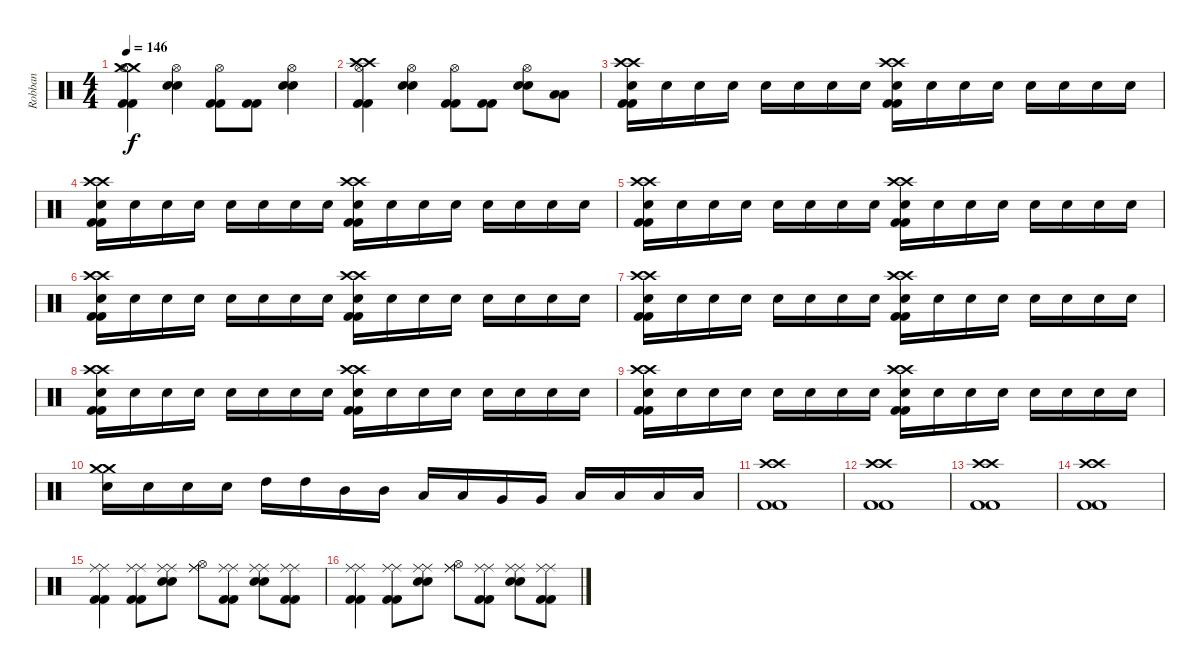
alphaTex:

\track ("Robban" "Robban") {instrument percussion}
\staff {score}
\articulation defaults
\ts (4 4)
\tempo 146
\clef neutral
\ks c
("Crash medium (hit)" "Crash medium (hit)" "Hi-Hat (open)" "Kick (hit) 2" "Kick (hit) 2").4{dy f} ("Hi-Hat (open)" "Electric Snare (hit)" "Electric Snare (hit)").4 ("Hi-Hat (open)" "Kick (hit) 2" "Kick (hit) 2").8 ("Kick (hit) 2" "Kick (hit) 2").8 ("Hi-Hat (open)" "Electric Snare (hit)" "Electric Snare (hit)").4 |
("Crash high (hit)" "Crash high (hit)" "Hi-Hat (open)" "Kick (hit) 2" "Kick (hit) 2").4 ("Hi-Hat (open)" "Electric Snare (hit)" "Electric Snare (hit)").4 ("Hi-Hat (open)" "Kick (hit) 2" "Kick (hit) 2").8 ("Kick (hit) 2" "Kick (hit) 2").8 ("Hi-Hat (open)" "Electric Snare (hit)" "Electric Snare (hit)").8 ("Low Floor Tom (hit)" "Low Floor Tom (hit)").8 |
("Crash high (hit)" "Crash high (hit)" "Electric Snare (hit)" "Kick (hit) 2" "Kick (hit) 2").16 "Electric Snare (hit)".16 "Electric Snare (hit)".16 "Electric Snare (hit)".16 "Electric Snare (hit)".16 "Electric Snare (hit)".16 "Electric Snare (hit)".16 "Electric Snare (hit)".16 ("Crash high (hit)" "Crash high (hit)" "Electric Snare (hit)" "Kick (hit) 2" "Kick (hit) 2").16 "Electric Snare (hit)".16 "Electric Snare (hit)".16 "Electric Snare (hit)".16 "Electric Snare (hit)".16 "Electric Snare (hit)".16 "Electric Snare (hit)".16 "Electric Snare (hit)".16 |
("Crash high (hit)" "Crash high (hit)" "Electric Snare (hit)" "Kick (hit) 2" "Kick (hit) 2").16 "Electric Snare (hit)".16 "Electric Snare (hit)".16 "Electric Snare (hit)".16 "Electric Snare (hit)".16 "Electric Snare (hit)".16 "Electric Snare (hit)".16 "Electric Snare (hit)".16 ("Crash high (hit)" "Crash high (hit)" "Electric Snare (hit)" "Kick (hit) 2" "Kick (hit) 2").16 "Electric Snare (hit)".16 "Electric Snare (hit)".16 "Electric Snare (hit)".16 "Electric Snare (hit)".16 "Electric Snare (hit)".16 "Electric Snare (hit)".16 "Electric Snare (hit)".16 |
("Crash high (hit)" "Crash high (hit)" "Electric Snare (hit)" "Kick (hit) 2" "Kick (hit) 2").16 "Electric Snare (hit)".16 "Electric Snare (hit)".16 "Electric Snare (hit)".16 "Electric Snare (hit)".16 "Electric Snare (hit)".16 "Electric Snare (hit)".16 "Electric Snare (hit)".16 ("Crash high (hit)" "Crash high (hit)" "Electric Snare (hit)" "Kick (hit) 2" "Kick (hit) 2").16 "Electric Snare (hit)".16 "Electric Snare (hit)".16 "Electric Snare (hit)".16 "Electric Snare (hit)".16 "Electric Snare (hit)".16 "Electric Snare (hit)".16 "Electric Snare (hit)".16 |
("Crash high (hit)" "Crash high (hit)" "Electric Snare (hit)" "Kick (hit) 2" "Kick (hit) 2").16 "Electric Snare (hit)".16 "Electric Snare (hit)".16 "Electric Snare (hit)".16 "Electric Snare (hit)".16 "Electric Snare (hit)".16 "Electric Snare (hit)".16 "Electric Snare (hit)".16 ("Crash high (hit)" "Crash high (hit)" "Electric Snare (hit)" "Kick (hit) 2" "Kick (hit) 2").16 "Electric Snare (hit)".16 "Electric Snare (hit)".16 "Electric Snare (hit)".16 "Electric Snare (hit)".16 "Electric Snare (hit)".16 "Electric Snare (hit)".16 "Electric Snare (hit)".16 |
("Crash high (hit)" "Crash high (hit)" "Electric Snare (hit)" "Kick (hit) 2" "Kick (hit) 2").16 "Electric Snare (hit)".16 "Electric Snare (hit)".16 "Electric Snare (hit)".16 "Electric Snare (hit)".16 "Electric Snare (hit)".16 "Electric Snare (hit)".16 "Electric Snare (hit)".16 ("Crash high (hit)" "Crash high (hit)" "Electric Snare (hit)" "Kick (hit) 2" "Kick (hit) 2").16 "Electric Snare (hit)".16 "Electric Snare (hit)".16 "Electric Snare (hit)".16 "Electric Snare (hit)".16 "Electric Snare (hit)".16 "Electric Snare (hit)".16 "Electric Snare (hit)".16 |
("Crash high (hit)" "Crash high (hit)" "Electric Snare (hit)" "Kick (hit) 2" "Kick (hit) 2").16 "Electric Snare (hit)".16 "Electric Snare (hit)".16 "Electric Snare (hit)".16 "Electric Snare (hit)".16 "Electric Snare (hit)".16 "Electric Snare (hit)".16 "Electric Snare (hit)".16 ("Crash high (hit)" "Crash high (hit)" "Electric Snare (hit)" "Kick (hit) 2" "Kick (hit) 2").16 "Electric Snare (hit)".16 "Electric Snare (hit)".16 "Electric Snare (hit)".16 "Electric Snare (hit)".16 "Electric Snare (hit)".16 "Electric Snare (hit)".16 "Electric Snare (hit)".16 |
("Crash high (hit)" "Crash high (hit)" "Electric Snare (hit)" "Kick (hit) 2" "Kick (hit) 2").16 "Electric Snare (hit)".16 "Electric Snare (hit)".16 "Electric Snare (hit)".16 "Electric Snare (hit)".16 "Electric Snare (hit)".16 "Electric Snare (hit)".16 "Electric Snare (hit)".16 ("Crash high (hit)" "Crash high (hit)" "Electric Snare (hit)" "Kick (hit) 2" "Kick (hit) 2").16 "Electric Snare (hit)".16 "Electric Snare (hit)".16 "Electric Snare (hit)".16 "Electric Snare (hit)".16 "Electric Snare (hit)".16 "Electric Snare (hit)".16 "Electric Snare (hit)".16 |
("Crash medium (hit)" "Crash medium (hit)" "Electric Snare (hit)").16 "Electric Snare (hit)".16 "Electric Snare (hit)".16 "Electric Snare (hit)".16 "High Tom (hit)".16 "High Tom (hit)".16 "Mid Tom (hit)".16 "Mid Tom (hit)".16 "Low Tom (hit)".16 "Low Tom (hit)".16 "Very Low Tom (hit)".16 "Very Low Tom (hit)".16 "Low Floor Tom (hit)".16 "Low Floor Tom (hit)".16 "Low Floor Tom (hit)".16 "Low Floor Tom (hit)".16 |
("Crash high (hit)" "Crash high (hit)" "Kick (hit) 2" "Kick (hit) 2").1 |
("Crash high (hit)" "Crash high (hit)" "Kick (hit) 2" "Kick (hit) 2").1 |
("Crash high (hit)" "Crash high (hit)" "Kick (hit) 2" "Kick (hit) 2").1 |
("Crash high (hit)" "Crash high (hit)" "Kick (hit) 2" "Kick (hit) 2").1 |
("Ride (middle)" "Ride (middle)" "Kick (hit) 2" "Kick (hit) 2").4 ("Ride (middle)" "Ride (middle)" "Kick (hit) 2" "Kick (hit) 2").8 ("Ride (middle)" "Ride (middle)" "Electric Snare (hit)" "Electric Snare (hit)").8 ("Ride (middle)" "Ride (middle)" "Hi-Hat (open)").8 ("Ride (middle)" "Ride (middle)" "Kick (hit) 2" "Kick (hit) 2").8 ("Ride (middle)" "Ride (middle)" "Electric Snare (hit)" "Electric Snare (hit)").8 ("Ride (middle)" "Ride (middle)" "Kick (hit) 2" "Kick (hit) 2").8 |
("Ride (middle)" "Ride (middle)" "Kick (hit) 2" "Kick (hit) 2").4 ("Ride (middle)" "Ride (middle)" "Kick (hit) 2" "Kick (hit) 2").8 ("Ride (middle)" "Ride (middle)" "Electric Snare (hit)" "Electric Snare (hit)").8 ("Ride (middle)" "Ride (middle)" "Hi-Hat (open)").8 ("Ride (middle)" "Ride (middle)" "Kick (hit) 2" "Kick (hit) 2").8 ("Ride (middle)" "Ride (middle)" "Electric Snare (hit)" "Electric Snare (hit)").8 ("Ride (middle)" "Ride (middle)" "Kick (hit) 2" "Kick (hit) 2").8
